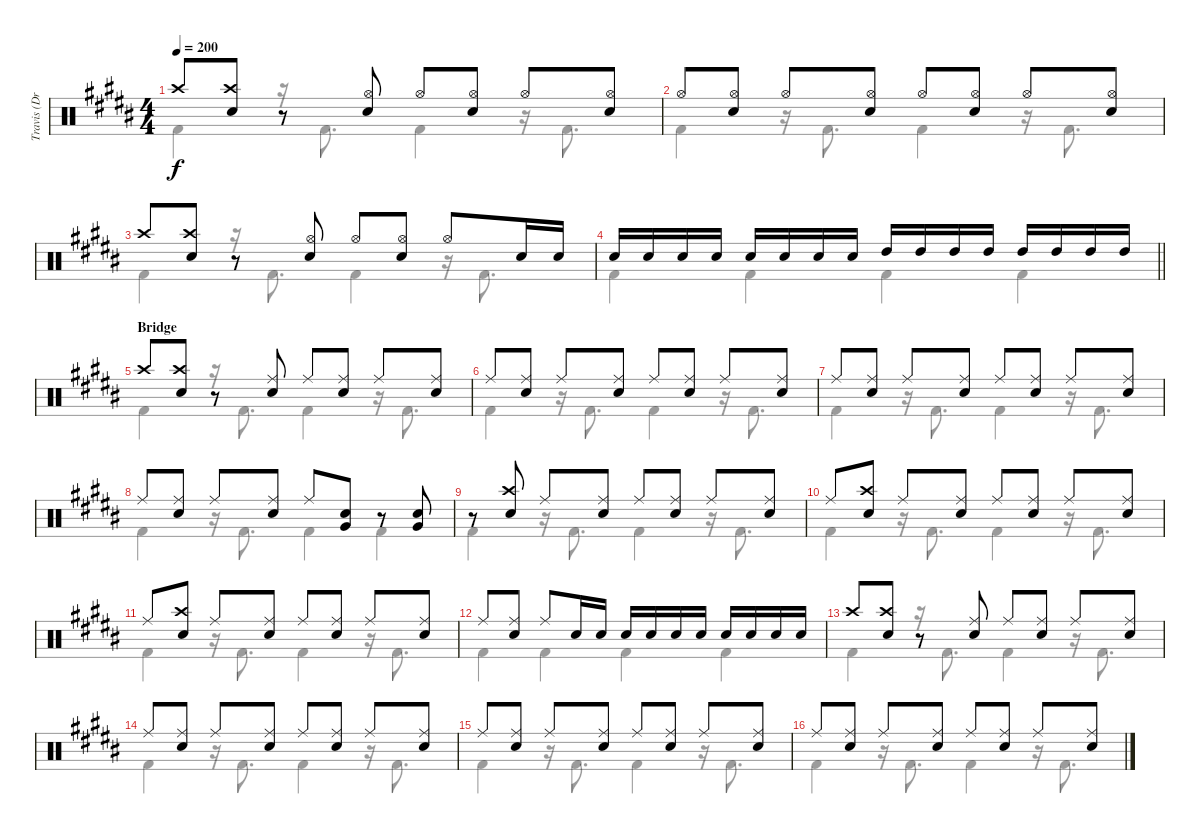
\track ("Travis (Drums)" "Travis (Dr") {instrument percussion}
\staff {score}
\articulation defaults
\voice
\ts (4 4)
\tempo 200
\clef neutral
\ks b "Crash high (hit)".8{dy f}
("Crash high (hit)" "Electric Snare (hit)").8 r.8 ("Electric Snare (hit)" "Hi-Hat (open)").8 "Hi-Hat (open)".8 ("Electric Snare (hit)" "Hi-Hat (open)").8 "Hi-Hat (open)".8 ("Electric Snare (hit)" "Hi-Hat (open)").8 |
"Hi-Hat (open)".8 ("Electric Snare (hit)" "Hi-Hat (open)").8 "Hi-Hat (open)".8 ("Electric Snare (hit)" "Hi-Hat (open)").8 "Hi-Hat (open)".8 ("Electric Snare (hit)" "Hi-Hat (open)").8 "Hi-Hat (open)".8 ("Electric Snare (hit)" "Hi-Hat (open)").8 |
"Crash high (hit)".8 ("Crash high (hit)" "Electric Snare (hit)").8 r.8 ("Electric Snare (hit)" "Hi-Hat (open)").8 "Hi-Hat (open)".8 ("Electric Snare (hit)" "Hi-Hat (open)").8 "Hi-Hat (open)".8 "Electric Snare (hit)".16 "Electric Snare (hit)".16 |
\barLineRight lightlight "Electric Snare (hit)".16 "Electric Snare (hit)".16 "Electric Snare (hit)".16 "Electric Snare (hit)".16 "Electric Snare (hit)".16 "Electric Snare (hit)".16 "Electric Snare (hit)".16 "Electric Snare (hit)".16 "High Tom (hit)".16 "High Tom (hit)".16 "High Tom (hit)".16 "High Tom (hit)".16 "High Tom (hit)".16 "High Tom (hit)".16 "High Tom (hit)".16 "High Tom (hit)".16
|
\section ("" "Bridge")
"Crash high (hit)".8 ("Crash high (hit)" "Electric Snare (hit)").8 r.8 ("Ride (middle)" "Electric Snare (hit)").8 "Ride (middle)".8 ("Ride (middle)" "Electric Snare (hit)").8 "Ride (middle)".8 ("Ride (middle)" "Electric Snare (hit)").8 |
"Ride (middle)".8 ("Ride (middle)" "Electric Snare (hit)").8 "Ride (middle)".8 ("Ride (middle)" "Electric Snare (hit)").8 "Ride (middle)".8 ("Ride (middle)" "Electric Snare (hit)").8 "Ride (middle)".8 ("Ride (middle)" "Electric Snare (hit)").8 |
"Ride (middle)".8 ("Ride (middle)" "Electric Snare (hit)").8 "Ride (middle)".8 ("Ride (middle)" "Electric Snare (hit)").8 "Ride (middle)".8 ("Ride (middle)" "Electric Snare (hit)").8 "Ride (middle)".8 ("Ride (middle)" "Electric Snare (hit)").8 |
"Ride (middle)".8 ("Ride (middle)" "Electric Snare (hit)").8 "Ride (middle)".8 ("Ride (middle)" "Electric Snare (hit)").8 "Ride (middle)".8 ("Electric Snare (hit)" "Very Low Tom (hit)").8 r.8 ("Electric Snare (hit)" "Very Low Tom (hit)").8 |
r.8 ("Crash high (hit)" "Electric Snare (hit)").8 "Ride (middle)".8 ("Ride (middle)" "Electric Snare (hit)").8 "Ride (middle)".8 ("Ride (middle)" "Electric Snare (hit)").8 "Ride (middle)".8 ("Ride (middle)" "Electric Snare (hit)").8 |
"Ride (middle)".8 ("Crash high (hit)" "Electric Snare (hit)").8 "Ride (middle)".8 ("Ride (middle)" "Electric Snare (hit)").8 "Ride (middle)".8 ("Ride (middle)" "Electric Snare (hit)").8 "Ride (middle)".8 ("Ride (middle)" "Electric Snare (hit)").8 |
"Ride (middle)".8 ("Crash high (hit)" "Electric Snare (hit)").8 "Ride (middle)".8 ("Ride (middle)" "Electric Snare (hit)").8 "Ride (middle)".8 ("Ride (middle)" "Electric Snare (hit)").8 "Ride (middle)".8 ("Ride (middle)" "Electric Snare (hit)").8 |
"Ride (middle)".8 ("Ride (middle)" "Electric Snare (hit)").8 "Ride (middle)".8 "Electric Snare (hit)".16 "Electric Snare (hit)".16 "Electric Snare (hit)".16 "Electric Snare (hit)".16 "Electric Snare (hit)".16 "Electric Snare (hit)".16 "Electric Snare (hit)".16 "Electric Snare (hit)".16 "Electric Snare (hit)".16 "Electric Snare (hit)".16 |
"Crash high (hit)".8 ("Crash high (hit)" "Electric Snare (hit)").8 r.8 ("Ride (middle)" "Electric Snare (hit)").8 "Ride (middle)".8 ("Ride (middle)" "Electric Snare (hit)").8 "Ride (middle)".8 ("Ride (middle)" "Electric Snare (hit)").8 |
"Ride (middle)".8 ("Ride (middle)" "Electric Snare (hit)").8 "Ride (middle)".8 ("Ride (middle)" "Electric Snare (hit)").8 "Ride (middle)".8 ("Ride (middle)" "Electric Snare (hit)").8 "Ride (middle)".8 ("Ride (middle)" "Electric Snare (hit)").8 |
"Ride (middle)".8 ("Ride (middle)" "Electric Snare (hit)").8 "Ride (middle)".8 ("Ride (middle)" "Electric Snare (hit)").8 "Ride (middle)".8 ("Ride (middle)" "Electric Snare (hit)").8 "Ride (middle)".8 ("Ride (middle)" "Electric Snare (hit)").8 |
"Ride (middle)".8 ("Ride (middle)" "Electric Snare (hit)").8 "Ride (middle)".8 ("Ride (middle)" "Electric Snare (hit)").8 "Ride (middle)".8 ("Ride (middle)" "Electric Snare (hit)").8 "Ride (middle)".8 ("Ride (middle)" "Electric Snare (hit)").8
\voice
\clef neutral
\ottava regular
\simile none
\ks b "Kick (hit) 2".4{dy f}
r.16 "Kick (hit) 2".8{d} "Kick (hit) 2".4 r.16 "Kick (hit) 2".8{d} |
"Kick (hit) 2".4 r.16 "Kick (hit) 2".8{d} "Kick (hit) 2".4 r.16 "Kick (hit) 2".8{d} |
"Kick (hit) 2".4 r.16 "Kick (hit) 2".8{d} "Kick (hit) 2".4 r.16 "Kick (hit) 2".8{d} |
\barLineRight lightlight "Kick (hit) 2".4 "Kick (hit) 2".4 "Kick (hit) 2".4 "Kick (hit) 2".4
|
"Kick (hit) 2".4 r.16 "Kick (hit) 2".8{d} "Kick (hit) 2".4 r.16 "Kick (hit) 2".8{d} |
"Kick (hit) 2".4 r.16 "Kick (hit) 2".8{d} "Kick (hit) 2".4 r.16 "Kick (hit) 2".8{d} |
"Kick (hit) 2".4 r.16 "Kick (hit) 2".8{d} "Kick (hit) 2".4 r.16 "Kick (hit) 2".8{d} |
"Kick (hit) 2".4 r.16 "Kick (hit) 2".8{d} "Kick (hit) 2".4 "Kick (hit) 2".4 |
"Kick (hit) 2".4 r.16 "Kick (hit) 2".8{d} "Kick (hit) 2".4 r.16 "Kick (hit) 2".8{d} |
"Kick (hit) 2".4 r.16 "Kick (hit) 2".8{d} "Kick (hit) 2".4 r.16 "Kick (hit) 2".8{d} |
"Kick (hit) 2".4 r.16 "Kick (hit) 2".8{d} "Kick (hit) 2".4 r.16 "Kick (hit) 2".8{d} |
"Kick (hit) 2".4 "Kick (hit) 2".4 "Kick (hit) 2".4 "Kick (hit) 2".4 |
"Kick (hit) 2".4 r.16 "Kick (hit) 2".8{d} "Kick (hit) 2".4 r.16 "Kick (hit) 2".8{d} |
"Kick (hit) 2".4 r.16 "Kick (hit) 2".8{d} "Kick (hit) 2".4 r.16 "Kick (hit) 2".8{d} |
"Kick (hit) 2".4 r.16 "Kick (hit) 2".8{d} "Kick (hit) 2".4 r.16 "Kick (hit) 2".8{d} |
"Kick (hit) 2".4 r.16 "Kick (hit) 2".8{d} "Kick (hit) 2".4 r.16 "Kick (hit) 2".8{d}
